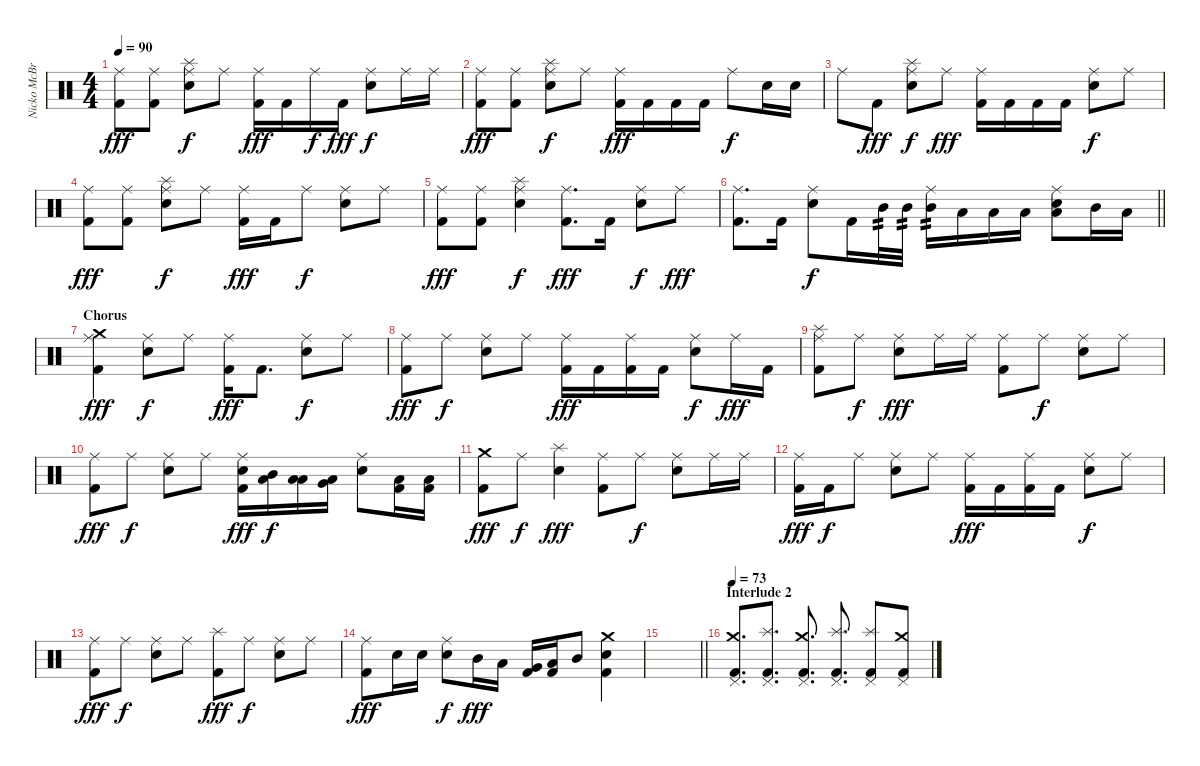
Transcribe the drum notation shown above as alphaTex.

\track ("Nicko McBrain" "Nicko McBr") {instrument percussion}
\staff {score}
\articulation defaults
\ts (4 4)
\tempo 90
\clef neutral
\ks c
("Ride (middle)" "Kick (hit) 2").8{dy fff} ("Ride (middle)" "Kick (hit) 2").8 ("Snare (hit) 2" "Splash (hit)" "Ride (middle)").8{dy f} "Ride (middle)".8 ("Ride (middle)" "Kick (hit) 2").16{dy fff} "Kick (hit) 2".16 "Ride (middle)".16{dy f} "Kick (hit) 2".16{dy fff} ("Snare (hit) 2" "Ride (middle)").8{dy f} "Ride (middle)".16 "Ride (middle)".16 |
("Ride (middle)" "Kick (hit) 2").8{dy fff} ("Ride (middle)" "Kick (hit) 2").8 ("Snare (hit) 2" "Splash (hit)" "Ride (middle)").8{dy f} "Ride (middle)".8 ("Ride (middle)" "Kick (hit) 2").16{dy fff} "Kick (hit) 2".16 "Kick (hit) 2".16 "Kick (hit) 2".16 "Ride (middle)".8{dy f} "Snare (hit) 2".16 "Snare (hit) 2".16 |
"Ride (middle)".8 "Kick (hit) 2".8{dy fff} ("Snare (hit) 2" "Splash (hit)" "Ride (middle)").8{dy f} "Ride (middle)".8{dy fff} ("Ride (middle)" "Kick (hit) 2").16 "Kick (hit) 2".16 "Kick (hit) 2".16 "Kick (hit) 2".16 ("Snare (hit) 2" "Ride (middle)").8{dy f} "Ride (middle)".8 |
("Ride (middle)" "Kick (hit) 2").8{dy fff} ("Ride (middle)" "Kick (hit) 2").8 ("Snare (hit) 2" "Splash (hit)" "Ride (middle)").8{dy f} "Ride (middle)".8 ("Ride (middle)" "Kick (hit) 2").16{dy fff} "Kick (hit) 2".16 "Ride (middle)".8{dy f} ("Snare (hit) 2" "Ride (middle)").8 "Ride (middle)".8 |
("Ride (middle)" "Kick (hit) 2").8{dy fff} ("Ride (middle)" "Kick (hit) 2").8 ("Snare (hit) 2" "Splash (hit)" "Ride (middle)").4{dy f} ("Ride (middle)" "Kick (hit) 2").8{d dy fff} "Kick (hit) 2".16 ("Snare (hit) 2" "Ride (middle)").8{dy f} "Ride (middle)".8{dy fff} |
\barLineRight lightlight
("Ride (middle)" "Kick (hit) 2").8{d} "Kick (hit) 2".16 ("Snare (hit) 2" "Ride (middle)").8{dy f} "Kick (hit) 2".16 "Mid Tom (hit)".32{tp 2} "Mid Tom (hit)".32{tp 2} ("Mid Tom (hit)" "Ride (middle)").16{tp 2} "Low Tom (hit)".16 "Low Tom (hit)".16 "Low Tom (hit)".16 ("Snare (hit) 2" "Low Tom (hit)" "Ride (middle)").8 "Mid Tom (hit)".16 "Low Tom (hit)".16 |
\section ("" "Chorus")
("Crash medium (hit)" "Ride (middle)" "Kick (hit) 2").4{dy fff} ("Snare (hit) 2" "Ride (middle)").8{dy f} "Ride (middle)".8 ("Ride (middle)" "Kick (hit) 2").16{dy fff} "Kick (hit) 2".8{d} ("Snare (hit) 2" "Ride (middle)").8{dy f} "Ride (middle)".8 |
("Ride (middle)" "Kick (hit) 2").8{dy fff} "Ride (middle)".8{dy f} ("Snare (hit) 2" "Ride (middle)").8 "Ride (middle)".8 ("Ride (middle)" "Kick (hit) 2").16{dy fff} "Kick (hit) 2".16 ("Ride (middle)" "Kick (hit) 2").16 "Kick (hit) 2".16 ("Snare (hit) 2" "Ride (middle)").8{dy f} "Ride (middle)".16{dy fff} "Kick (hit) 2".16 |
("Splash (hit)" "Ride (middle)" "Kick (hit) 2").8 "Ride (middle)".8{dy f} ("Snare (hit) 2" "Ride (middle)").8{dy fff} "Ride (middle)".16 "Ride (middle)".16 ("Ride (middle)" "Kick (hit) 2").8 "Ride (middle)".8{dy f} ("Snare (hit) 2" "Ride (middle)").8 "Ride (middle)".8 |
("Ride (middle)" "Kick (hit) 2").8{dy fff} "Ride (middle)".8{dy f} ("Snare (hit) 2" "Ride (middle)").8 "Ride (middle)".8 ("Snare (hit) 2" "Ride (middle)" "Kick (hit) 2").16{dy fff} ("Low Tom (hit)" "Mid Tom (hit)").16{dy f} ("Low Tom (hit)" "Low Tom (hit)").16 ("Low Tom (hit)" "Very Low Tom (hit)").16 ("Snare (hit) 2" "Ride (middle)").8 ("Low Tom (hit)" "Kick (hit) 2").16 ("Low Tom (hit)" "Kick (hit) 2").16 |
("Crash medium (hit)" "Kick (hit) 2").8{dy fff} "Ride (middle)".8{dy f} ("Snare (hit) 2" "Splash (hit)").4{dy fff} ("Ride (middle)" "Kick (hit) 2").8 "Ride (middle)".8{dy f} ("Snare (hit) 2" "Ride (middle)").8 "Ride (middle)".16 "Ride (middle)".16 |
("Ride (middle)" "Kick (hit) 2").16{dy fff} "Kick (hit) 2".16{dy f} "Ride (middle)".8 ("Snare (hit) 2" "Ride (middle)").8 "Ride (middle)".8 ("Ride (middle)" "Kick (hit) 2").16{dy fff} "Kick (hit) 2".16 ("Ride (middle)" "Kick (hit) 2").16 "Kick (hit) 2".16 ("Snare (hit) 2" "Ride (middle)").8{dy f} "Ride (middle)".8 |
("Ride (middle)" "Kick (hit) 2").8{dy fff} "Ride (middle)".8{dy f} ("Snare (hit) 2" "Ride (middle)").8 "Ride (middle)".8 ("Splash (hit)" "Kick (hit) 2").8{dy fff} "Ride (middle)".8{dy f} ("Snare (hit) 2" "Ride (middle)").8 "Ride (middle)".8 |
("Ride (middle)" "Kick (hit) 2").8{dy fff} "Snare (hit) 2".16 "Snare (hit) 2".16 ("Snare (hit) 2" "Ride (middle)").8{dy f} "Mid Tom (hit)".16{dy fff} "Low Tom (hit)".16 ("Very Low Tom (hit)" "Kick (hit) 2").16 ("Low Tom (hit)" "Kick (hit) 2").16 "Mid Tom (hit)".8 ("Snare (hit) 2" "Crash medium (hit)" "Kick (hit) 2").4 |
\barLineRight lightlight
|
\section ("" "Interlude 2")
\tempo 73
("Crash medium (hit)" "Pedal Hi-Hat (hit)" "Kick (hit) 2").8{d} ("Splash (hit)" "Pedal Hi-Hat (hit)" "Kick (hit) 2").8{d} ("Crash medium (hit)" "Pedal Hi-Hat (hit)" "Kick (hit) 2").8{d} ("Splash (hit)" "Pedal Hi-Hat (hit)" "Kick (hit) 2").8{d} ("Splash (hit)" "Pedal Hi-Hat (hit)" "Kick (hit) 2").8 ("Crash medium (hit)" "Pedal Hi-Hat (hit)" "Kick (hit) 2").8
